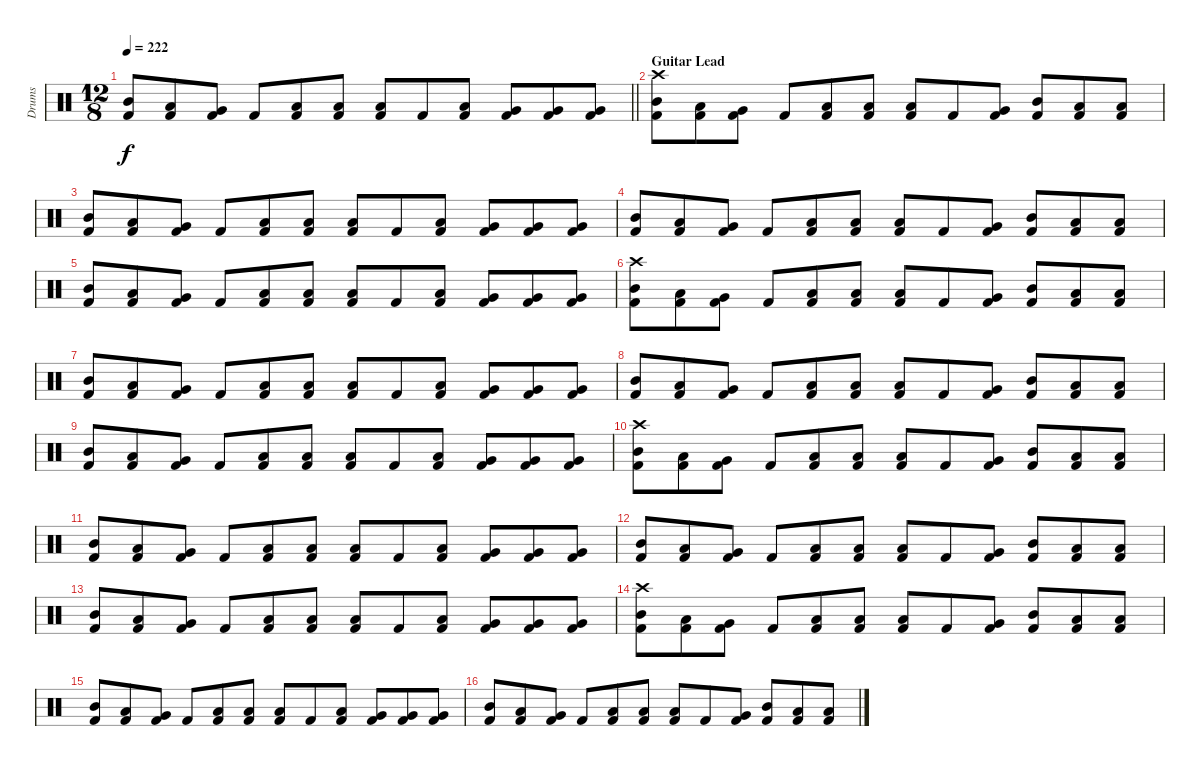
\track ("Drums" "Drums") {instrument percussion}
\staff {score}
\articulation defaults
\ts (12 8)
\tempo 222
\clef neutral
\barLineRight lightlight
\ks c
("Mid Tom (hit)" "Kick (hit) 2").8{dy f} ("Low Tom (hit)" "Kick (hit) 2").8 ("Very Low Tom (hit)" "Kick (hit) 2").8 "Kick (hit) 2".8 ("Low Floor Tom (hit)" "Kick (hit) 2").8 ("Low Floor Tom (hit)" "Kick (hit) 2").8 ("Low Tom (hit)" "Kick (hit) 2").8 "Kick (hit) 2".8 ("Low Floor Tom (hit)" "Kick (hit) 2").8 ("Very Low Tom (hit)" "Kick (hit) 2").8 ("Very Low Tom (hit)" "Kick (hit) 2").8 ("Very Low Tom (hit)" "Kick (hit) 2").8 |
\section ("" "Guitar Lead")
("Crash high (hit)" "Mid Tom (hit)" "Kick (hit) 2").8 ("Low Tom (hit)" "Kick (hit) 2").8 ("Very Low Tom (hit)" "Kick (hit) 2").8 "Kick (hit) 2".8 ("Low Floor Tom (hit)" "Kick (hit) 2").8 ("Low Floor Tom (hit)" "Kick (hit) 2").8 ("Low Tom (hit)" "Kick (hit) 2").8 "Kick (hit) 2".8 ("Very Low Tom (hit)" "Kick (hit) 2").8 ("Mid Tom (hit)" "Kick (hit) 2").8 ("Low Floor Tom (hit)" "Kick (hit) 2").8 ("Low Tom (hit)" "Kick (hit) 2").8 |
("Mid Tom (hit)" "Kick (hit) 2").8 ("Low Tom (hit)" "Kick (hit) 2").8 ("Very Low Tom (hit)" "Kick (hit) 2").8 "Kick (hit) 2".8 ("Low Floor Tom (hit)" "Kick (hit) 2").8 ("Low Floor Tom (hit)" "Kick (hit) 2").8 ("Low Tom (hit)" "Kick (hit) 2").8 "Kick (hit) 2".8 ("Low Floor Tom (hit)" "Kick (hit) 2").8 ("Very Low Tom (hit)" "Kick (hit) 2").8 ("Very Low Tom (hit)" "Kick (hit) 2").8 ("Very Low Tom (hit)" "Kick (hit) 2").8 |
("Mid Tom (hit)" "Kick (hit) 2").8 ("Low Tom (hit)" "Kick (hit) 2").8 ("Very Low Tom (hit)" "Kick (hit) 2").8 "Kick (hit) 2".8 ("Low Floor Tom (hit)" "Kick (hit) 2").8 ("Low Floor Tom (hit)" "Kick (hit) 2").8 ("Low Tom (hit)" "Kick (hit) 2").8 "Kick (hit) 2".8 ("Very Low Tom (hit)" "Kick (hit) 2").8 ("Mid Tom (hit)" "Kick (hit) 2").8 ("Low Floor Tom (hit)" "Kick (hit) 2").8 ("Low Tom (hit)" "Kick (hit) 2").8 |
("Mid Tom (hit)" "Kick (hit) 2").8 ("Low Tom (hit)" "Kick (hit) 2").8 ("Very Low Tom (hit)" "Kick (hit) 2").8 "Kick (hit) 2".8 ("Low Floor Tom (hit)" "Kick (hit) 2").8 ("Low Floor Tom (hit)" "Kick (hit) 2").8 ("Low Tom (hit)" "Kick (hit) 2").8 "Kick (hit) 2".8 ("Low Floor Tom (hit)" "Kick (hit) 2").8 ("Very Low Tom (hit)" "Kick (hit) 2").8 ("Very Low Tom (hit)" "Kick (hit) 2").8 ("Very Low Tom (hit)" "Kick (hit) 2").8 |
("Crash high (hit)" "Mid Tom (hit)" "Kick (hit) 2").8 ("Low Tom (hit)" "Kick (hit) 2").8 ("Very Low Tom (hit)" "Kick (hit) 2").8 "Kick (hit) 2".8 ("Low Floor Tom (hit)" "Kick (hit) 2").8 ("Low Floor Tom (hit)" "Kick (hit) 2").8 ("Low Tom (hit)" "Kick (hit) 2").8 "Kick (hit) 2".8 ("Very Low Tom (hit)" "Kick (hit) 2").8 ("Mid Tom (hit)" "Kick (hit) 2").8 ("Low Floor Tom (hit)" "Kick (hit) 2").8 ("Low Tom (hit)" "Kick (hit) 2").8 |
("Mid Tom (hit)" "Kick (hit) 2").8 ("Low Tom (hit)" "Kick (hit) 2").8 ("Very Low Tom (hit)" "Kick (hit) 2").8 "Kick (hit) 2".8 ("Low Floor Tom (hit)" "Kick (hit) 2").8 ("Low Floor Tom (hit)" "Kick (hit) 2").8 ("Low Tom (hit)" "Kick (hit) 2").8 "Kick (hit) 2".8 ("Low Floor Tom (hit)" "Kick (hit) 2").8 ("Very Low Tom (hit)" "Kick (hit) 2").8 ("Very Low Tom (hit)" "Kick (hit) 2").8 ("Very Low Tom (hit)" "Kick (hit) 2").8 |
("Mid Tom (hit)" "Kick (hit) 2").8 ("Low Tom (hit)" "Kick (hit) 2").8 ("Very Low Tom (hit)" "Kick (hit) 2").8 "Kick (hit) 2".8 ("Low Floor Tom (hit)" "Kick (hit) 2").8 ("Low Floor Tom (hit)" "Kick (hit) 2").8 ("Low Tom (hit)" "Kick (hit) 2").8 "Kick (hit) 2".8 ("Very Low Tom (hit)" "Kick (hit) 2").8 ("Mid Tom (hit)" "Kick (hit) 2").8 ("Low Floor Tom (hit)" "Kick (hit) 2").8 ("Low Tom (hit)" "Kick (hit) 2").8 |
("Mid Tom (hit)" "Kick (hit) 2").8 ("Low Tom (hit)" "Kick (hit) 2").8 ("Very Low Tom (hit)" "Kick (hit) 2").8 "Kick (hit) 2".8 ("Low Floor Tom (hit)" "Kick (hit) 2").8 ("Low Floor Tom (hit)" "Kick (hit) 2").8 ("Low Tom (hit)" "Kick (hit) 2").8 "Kick (hit) 2".8 ("Low Floor Tom (hit)" "Kick (hit) 2").8 ("Very Low Tom (hit)" "Kick (hit) 2").8 ("Very Low Tom (hit)" "Kick (hit) 2").8 ("Very Low Tom (hit)" "Kick (hit) 2").8 |
("Crash high (hit)" "Mid Tom (hit)" "Kick (hit) 2").8 ("Low Tom (hit)" "Kick (hit) 2").8 ("Very Low Tom (hit)" "Kick (hit) 2").8 "Kick (hit) 2".8 ("Low Floor Tom (hit)" "Kick (hit) 2").8 ("Low Floor Tom (hit)" "Kick (hit) 2").8 ("Low Tom (hit)" "Kick (hit) 2").8 "Kick (hit) 2".8 ("Very Low Tom (hit)" "Kick (hit) 2").8 ("Mid Tom (hit)" "Kick (hit) 2").8 ("Low Floor Tom (hit)" "Kick (hit) 2").8 ("Low Tom (hit)" "Kick (hit) 2").8 |
("Mid Tom (hit)" "Kick (hit) 2").8 ("Low Tom (hit)" "Kick (hit) 2").8 ("Very Low Tom (hit)" "Kick (hit) 2").8 "Kick (hit) 2".8 ("Low Floor Tom (hit)" "Kick (hit) 2").8 ("Low Floor Tom (hit)" "Kick (hit) 2").8 ("Low Tom (hit)" "Kick (hit) 2").8 "Kick (hit) 2".8 ("Low Floor Tom (hit)" "Kick (hit) 2").8 ("Very Low Tom (hit)" "Kick (hit) 2").8 ("Very Low Tom (hit)" "Kick (hit) 2").8 ("Very Low Tom (hit)" "Kick (hit) 2").8 |
("Mid Tom (hit)" "Kick (hit) 2").8 ("Low Tom (hit)" "Kick (hit) 2").8 ("Very Low Tom (hit)" "Kick (hit) 2").8 "Kick (hit) 2".8 ("Low Floor Tom (hit)" "Kick (hit) 2").8 ("Low Floor Tom (hit)" "Kick (hit) 2").8 ("Low Tom (hit)" "Kick (hit) 2").8 "Kick (hit) 2".8 ("Very Low Tom (hit)" "Kick (hit) 2").8 ("Mid Tom (hit)" "Kick (hit) 2").8 ("Low Floor Tom (hit)" "Kick (hit) 2").8 ("Low Tom (hit)" "Kick (hit) 2").8 |
("Mid Tom (hit)" "Kick (hit) 2").8 ("Low Tom (hit)" "Kick (hit) 2").8 ("Very Low Tom (hit)" "Kick (hit) 2").8 "Kick (hit) 2".8 ("Low Floor Tom (hit)" "Kick (hit) 2").8 ("Low Floor Tom (hit)" "Kick (hit) 2").8 ("Low Tom (hit)" "Kick (hit) 2").8 "Kick (hit) 2".8 ("Low Floor Tom (hit)" "Kick (hit) 2").8 ("Very Low Tom (hit)" "Kick (hit) 2").8 ("Very Low Tom (hit)" "Kick (hit) 2").8 ("Very Low Tom (hit)" "Kick (hit) 2").8 |
("Crash high (hit)" "Mid Tom (hit)" "Kick (hit) 2").8 ("Low Tom (hit)" "Kick (hit) 2").8 ("Very Low Tom (hit)" "Kick (hit) 2").8 "Kick (hit) 2".8 ("Low Floor Tom (hit)" "Kick (hit) 2").8 ("Low Floor Tom (hit)" "Kick (hit) 2").8 ("Low Tom (hit)" "Kick (hit) 2").8 "Kick (hit) 2".8 ("Very Low Tom (hit)" "Kick (hit) 2").8 ("Mid Tom (hit)" "Kick (hit) 2").8 ("Low Floor Tom (hit)" "Kick (hit) 2").8 ("Low Tom (hit)" "Kick (hit) 2").8 |
("Mid Tom (hit)" "Kick (hit) 2").8 ("Low Tom (hit)" "Kick (hit) 2").8 ("Very Low Tom (hit)" "Kick (hit) 2").8 "Kick (hit) 2".8 ("Low Floor Tom (hit)" "Kick (hit) 2").8 ("Low Floor Tom (hit)" "Kick (hit) 2").8 ("Low Tom (hit)" "Kick (hit) 2").8 "Kick (hit) 2".8 ("Low Floor Tom (hit)" "Kick (hit) 2").8 ("Very Low Tom (hit)" "Kick (hit) 2").8 ("Very Low Tom (hit)" "Kick (hit) 2").8 ("Very Low Tom (hit)" "Kick (hit) 2").8 |
("Mid Tom (hit)" "Kick (hit) 2").8 ("Low Tom (hit)" "Kick (hit) 2").8 ("Very Low Tom (hit)" "Kick (hit) 2").8 "Kick (hit) 2".8 ("Low Floor Tom (hit)" "Kick (hit) 2").8 ("Low Floor Tom (hit)" "Kick (hit) 2").8 ("Low Tom (hit)" "Kick (hit) 2").8 "Kick (hit) 2".8 ("Very Low Tom (hit)" "Kick (hit) 2").8 ("Mid Tom (hit)" "Kick (hit) 2").8 ("Low Floor Tom (hit)" "Kick (hit) 2").8 ("Low Tom (hit)" "Kick (hit) 2").8
